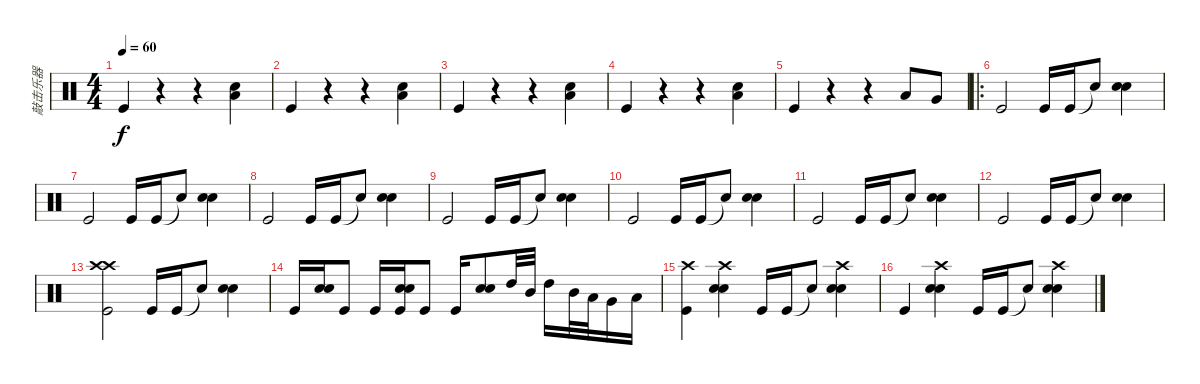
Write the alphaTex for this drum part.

\track ("敲击乐器" "敲击乐器") {instrument percussion}
\staff {score}
\articulation defaults
\ts (4 4)
\tempo 60
\clef neutral
\ks c "Kick (hit)".4{dy f}
r.4 r.4 ("Low Tom (hit)" "Snare (hit) 2").4 |
"Kick (hit)".4 r.4 r.4 ("Low Tom (hit)" "Snare (hit) 2").4 |
"Kick (hit)".4 r.4 r.4 ("Low Tom (hit)" "Snare (hit) 2").4 |
"Kick (hit)".4 r.4 r.4 ("Low Tom (hit)" "Snare (hit) 2").4 |
"Kick (hit)".4 r.4 r.4 "Low Tom (hit)".8 "Very Low Tom (hit)".8 |
\ro "Kick (hit)".2 "Kick (hit)".16 "Kick (hit)".16 "Snare (hit)"{t}.8
("Snare (hit) 2" "Snare (hit) 2").4 |
"Kick (hit)".2 "Kick (hit)".16 "Kick (hit)".16 "Snare (hit)"{t}.8 ("Snare (hit) 2" "Snare (hit) 2").4 |
"Kick (hit)".2 "Kick (hit)".16 "Kick (hit)".16 "Snare (hit)"{t}.8 ("Snare (hit) 2" "Snare (hit) 2").4 |
"Kick (hit)".2 "Kick (hit)".16 "Kick (hit)".16 "Snare (hit)"{t}.8 ("Snare (hit) 2" "Snare (hit) 2").4 |
"Kick (hit)".2 "Kick (hit)".16 "Kick (hit)".16 "Snare (hit)"{t}.8 ("Snare (hit) 2" "Snare (hit) 2").4 |
"Kick (hit)".2 "Kick (hit)".16 "Kick (hit)".16 "Snare (hit)"{t}.8 ("Snare (hit) 2" "Snare (hit) 2").4 |
"Kick (hit)".2 "Kick (hit)".16 "Kick (hit)".16 "Snare (hit)"{t}.8 ("Snare (hit) 2" "Snare (hit) 2").4 |
("Crash high (hit)" "Crash high (hit)" "Kick (hit)").2 "Kick (hit)".16 "Kick (hit)".16 "Snare (hit)"{t}.8 ("Snare (hit) 2" "Snare (hit) 2").4 |
"Kick (hit)".16 ("Snare (hit) 2" "Snare (hit) 2").16 "Kick (hit)".8 "Kick (hit)".16 ("Snare (hit) 2" "Snare (hit) 2" "Kick (hit)").16 "Kick (hit)".8 "Kick (hit)".16 ("Snare (hit) 2" "Snare (hit) 2").8 "High Tom (hit)".32 "Mid Tom (hit)".32 "High Tom (hit)".16 "Mid Tom (hit)".32 "Low Tom (hit)".32 "Very Low Tom (hit)".16 "Low Floor Tom (hit)".16 |
("Crash high (hit)" "Kick (hit)").4 ("Crash high (hit)" "Snare (hit) 2" "Snare (hit) 2").4 "Kick (hit)".16 "Kick (hit)".16 "Snare (hit)"{t}.8 ("Crash high (hit)" "Snare (hit) 2" "Snare (hit) 2").4 |
"Kick (hit)".4 ("Crash high (hit)" "Snare (hit) 2" "Snare (hit) 2").4 "Kick (hit)".16 "Kick (hit)".16 "Snare (hit)"{t}.8 ("Crash high (hit)" "Snare (hit) 2" "Snare (hit) 2").4
